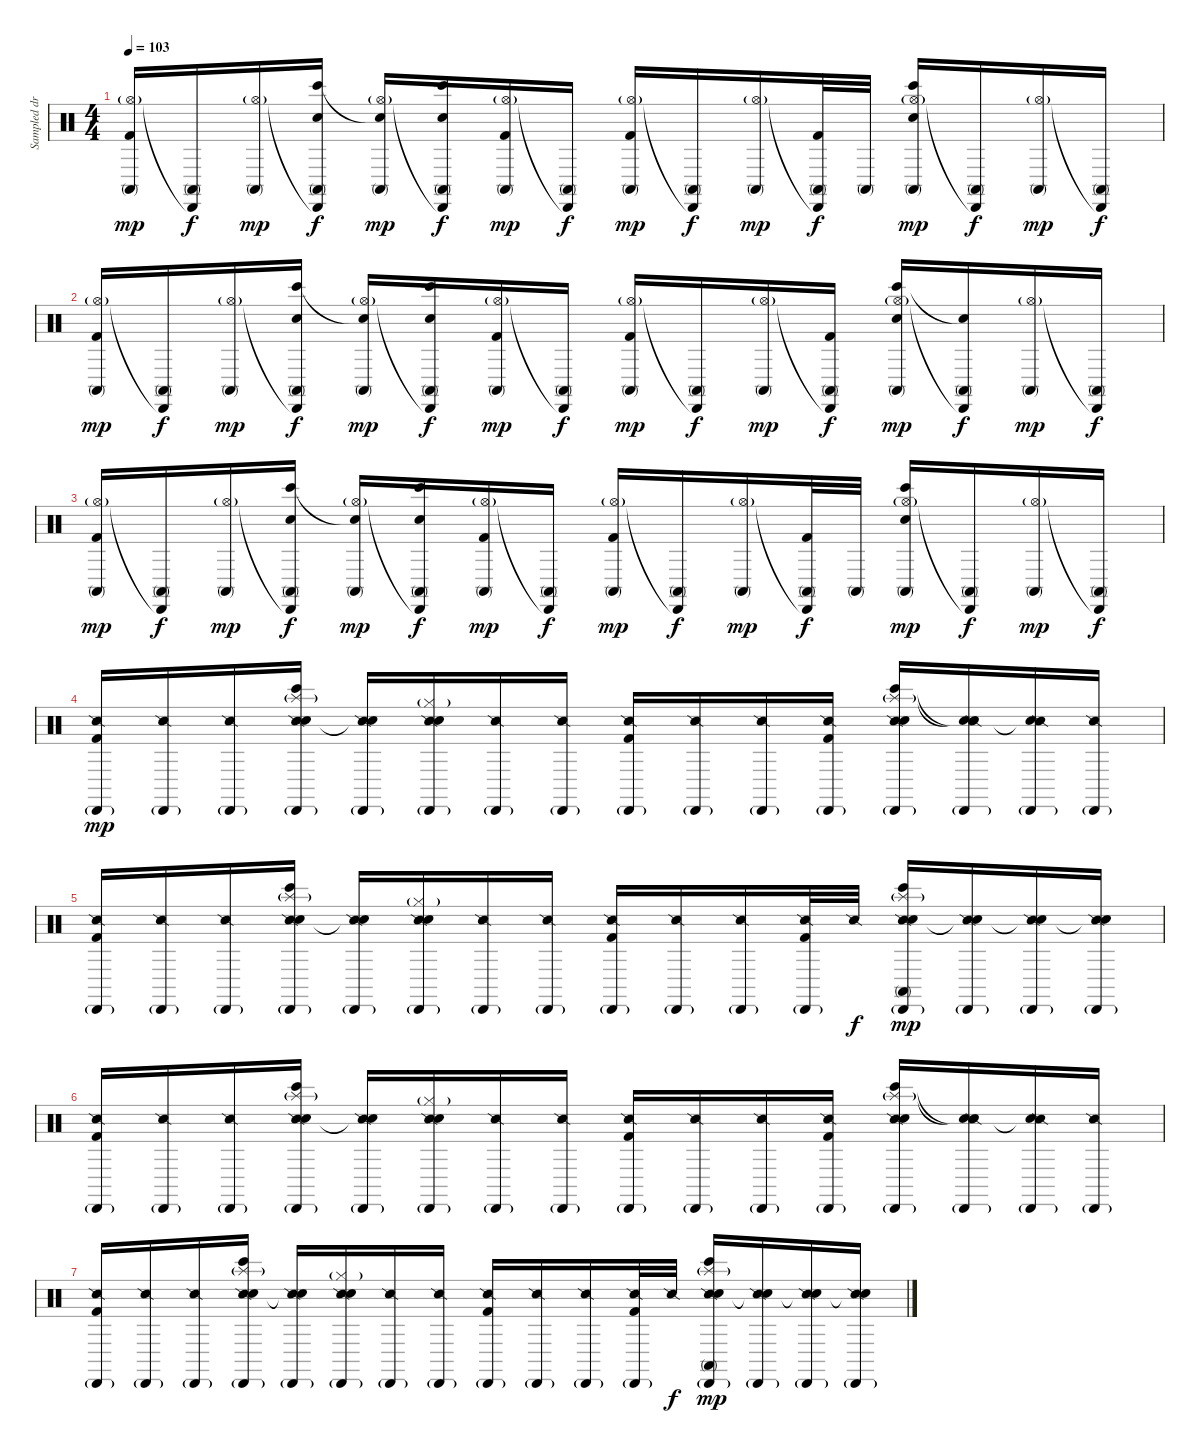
\track ("Sampled drums (Rob with Joe)" "Sampled dr") {instrument percussion}
\staff {score}
\articulation defaults
\ts (4 4)
\tempo 103
\clef neutral
\ks c
("Hi-Hat (open)"{g} "Conga high (mute)" "Kick (hit) 2").16{dy mp} ("Cabasa (hit)"{t} "Conga high (mute)").16{dy f} ("Hi-Hat (open)"{g} "Conga high (mute)").16{dy mp} ("Cabasa (hit)"{t} "Conga high (mute)" "Bongo High (hit)" "Snare (hit) 2").16{dy f} ("Hi-Hat (open)"{g} "Conga high (mute)" "Snare (hit)"{t}).16{dy mp} ("Cabasa (hit)"{t} "Conga high (mute)" "Bongo High (hit)" "Snare (hit) 2").16{dy f} ("Hi-Hat (open)"{g} "Conga high (mute)" "Kick (hit) 2").16{dy mp} ("Cabasa (hit)"{t} "Conga high (mute)").16{dy f} ("Hi-Hat (open)"{g} "Conga high (mute)" "Kick (hit) 2").16{dy mp} ("Cabasa (hit)"{t} "Conga high (mute)").16{dy f} ("Hi-Hat (open)"{g} "Conga high (mute)").16{dy mp} ("Cabasa (hit)"{t} "Conga high (mute)" "Kick (hit) 2").32{dy f} "Conga high (mute)".32 ("Hi-Hat (open)"{g} "Conga high (mute)" "Bongo High (hit)" "Snare (hit) 2").16{dy mp} ("Cabasa (hit)"{t} "Conga high (mute)").16{dy f} ("Hi-Hat (open)"{g} "Conga high (mute)").16{dy mp} ("Cabasa (hit)"{t} "Conga high (mute)").16{dy f} |
("Hi-Hat (open)"{g} "Conga high (mute)" "Kick (hit) 2").16{dy mp} ("Cabasa (hit)"{t} "Conga high (mute)").16{dy f} ("Hi-Hat (open)"{g} "Conga high (mute)").16{dy mp} ("Cabasa (hit)"{t} "Conga high (mute)" "Bongo High (hit)" "Snare (hit) 2").16{dy f} ("Hi-Hat (open)"{g} "Conga high (mute)" "Snare (hit)"{t}).16{dy mp} ("Cabasa (hit)"{t} "Conga high (mute)" "Bongo High (hit)" "Snare (hit) 2").16{dy f} ("Hi-Hat (open)"{g} "Conga high (mute)" "Kick (hit) 2").16{dy mp} ("Cabasa (hit)"{t} "Conga high (mute)").16{dy f} ("Hi-Hat (open)"{g} "Conga high (mute)" "Kick (hit) 2").16{dy mp} ("Cabasa (hit)"{t} "Conga high (mute)").16{dy f} ("Hi-Hat (open)"{g} "Conga high (mute)").16{dy mp} ("Cabasa (hit)"{t} "Conga high (mute)" "Kick (hit) 2").16{dy f} ("Hi-Hat (open)"{g} "Conga high (mute)" "Bongo High (hit)" "Snare (hit) 2").16{dy mp} ("Cabasa (hit)"{t} "Conga high (mute)" "Snare (hit)"{t}).16{dy f} ("Hi-Hat (open)"{g} "Conga high (mute)").16{dy mp} ("Cabasa (hit)"{t} "Conga high (mute)").16{dy f} |
("Hi-Hat (open)"{g} "Conga high (mute)" "Kick (hit) 2").16{dy mp} ("Cabasa (hit)"{t} "Conga high (mute)").16{dy f} ("Hi-Hat (open)"{g} "Conga high (mute)").16{dy mp} ("Cabasa (hit)"{t} "Conga high (mute)" "Bongo High (hit)" "Snare (hit) 2").16{dy f} ("Hi-Hat (open)"{g} "Conga high (mute)" "Snare (hit)"{t}).16{dy mp} ("Cabasa (hit)"{t} "Conga high (mute)" "Bongo High (hit)" "Snare (hit) 2").16{dy f} ("Hi-Hat (open)"{g} "Conga high (mute)" "Kick (hit) 2").16{dy mp} ("Cabasa (hit)"{t} "Conga high (mute)").16{dy f} ("Hi-Hat (open)"{g} "Conga high (mute)" "Kick (hit) 2").16{dy mp} ("Cabasa (hit)"{t} "Conga high (mute)").16{dy f} ("Hi-Hat (open)"{g} "Conga high (mute)").16{dy mp} ("Cabasa (hit)"{t} "Conga high (mute)" "Kick (hit) 2").32{dy f} "Conga high (mute)".32 ("Hi-Hat (open)"{g} "Conga high (mute)" "Bongo High (hit)" "Snare (hit) 2").16{dy mp} ("Cabasa (hit)"{t} "Conga high (mute)").16{dy f} ("Hi-Hat (open)"{g} "Conga high (mute)").16{dy mp} ("Cabasa (hit)"{t} "Conga high (mute)").16{dy f} |
("Cabasa (hit)"{g} "Snare (side stick) 2" "Kick (hit) 2").16{dy mp} ("Cabasa (hit)"{g} "Snare (side stick) 2").16 ("Cabasa (hit)"{g} "Snare (side stick) 2").16 ("Cabasa (hit)"{g} "Splash (hit)"{g} "Snare (side stick) 2" "Bongo High (hit)" "Snare (hit) 2").16 ("Cabasa (hit)"{g} "Snare (side stick) 2" "Snare (hit)"{t}).16 ("Cabasa (hit)"{g} "Hi-Hat (closed)"{g} "Snare (side stick) 2" "Snare (hit) 2").16 ("Cabasa (hit)"{g} "Snare (side stick) 2").16 ("Cabasa (hit)"{g} "Snare (side stick) 2").16 ("Cabasa (hit)"{g} "Snare (side stick) 2" "Kick (hit) 2").16 ("Cabasa (hit)"{g} "Snare (side stick) 2").16 ("Cabasa (hit)"{g} "Snare (side stick) 2").16 ("Cabasa (hit)"{g} "Snare (side stick) 2" "Kick (hit) 2").16 ("Cabasa (hit)"{g} "Splash (hit)"{g} "Snare (side stick) 2" "Bongo High (hit)" "Snare (hit) 2").16 ("Cabasa (hit)"{g} "Snare (hit)"{t} "Snare (side stick) 2" "Snare (hit)"{t}).16 ("Cabasa (hit)"{g} "Snare (hit)"{t} "Snare (side stick) 2").16 ("Cabasa (hit)"{g} "Snare (side stick) 2").16 |
("Cabasa (hit)"{g} "Snare (side stick) 2" "Kick (hit) 2").16 ("Cabasa (hit)"{g} "Snare (side stick) 2").16 ("Cabasa (hit)"{g} "Snare (side stick) 2").16 ("Cabasa (hit)"{g} "Splash (hit)"{g} "Snare (side stick) 2" "Bongo High (hit)" "Snare (hit) 2").16 ("Cabasa (hit)"{g} "Snare (side stick) 2" "Snare (hit)"{t}).16 ("Cabasa (hit)"{g} "Hi-Hat (closed)"{g} "Snare (side stick) 2" "Snare (hit) 2").16 ("Cabasa (hit)"{g} "Snare (side stick) 2").16 ("Cabasa (hit)"{g} "Snare (side stick) 2").16 ("Cabasa (hit)"{g} "Snare (side stick) 2" "Kick (hit) 2").16 ("Cabasa (hit)"{g} "Snare (side stick) 2").16 ("Cabasa (hit)"{g} "Snare (side stick) 2").16 ("Cabasa (hit)"{g} "Snare (side stick) 2" "Kick (hit) 2").32 "Snare (side stick) 2".32{dy f} ("Cabasa (hit)"{g} "Conga high (mute)" "Snare (side stick) 2" "Bongo High (hit)" "Snare (hit) 2" "Splash (hit)"{g}).16{dy mp} ("Cabasa (hit)"{g} "Snare (side stick) 2" "Snare (hit)"{t}).16 ("Cabasa (hit)"{g} "Snare (side stick) 2" "Snare (hit)"{t}).16 ("Cabasa (hit)"{g} "Snare (side stick) 2" "Snare (hit)"{t}).16 |
("Cabasa (hit)"{g} "Snare (side stick) 2" "Kick (hit) 2").16 ("Cabasa (hit)"{g} "Snare (side stick) 2").16 ("Cabasa (hit)"{g} "Snare (side stick) 2").16 ("Cabasa (hit)"{g} "Splash (hit)"{g} "Snare (side stick) 2" "Bongo High (hit)" "Snare (hit) 2").16 ("Cabasa (hit)"{g} "Snare (side stick) 2" "Snare (hit)"{t}).16 ("Cabasa (hit)"{g} "Hi-Hat (closed)"{g} "Snare (side stick) 2" "Snare (hit) 2").16 ("Cabasa (hit)"{g} "Snare (side stick) 2").16 ("Cabasa (hit)"{g} "Snare (side stick) 2").16 ("Cabasa (hit)"{g} "Snare (side stick) 2" "Kick (hit) 2").16 ("Cabasa (hit)"{g} "Snare (side stick) 2").16 ("Cabasa (hit)"{g} "Snare (side stick) 2").16 ("Cabasa (hit)"{g} "Snare (side stick) 2" "Kick (hit) 2").16 ("Cabasa (hit)"{g} "Splash (hit)"{g} "Snare (side stick) 2" "Bongo High (hit)" "Snare (hit) 2").16 ("Cabasa (hit)"{g} "Snare (hit)"{t} "Snare (side stick) 2" "Snare (hit)"{t}).16 ("Cabasa (hit)"{g} "Snare (hit)"{t} "Snare (side stick) 2").16 ("Cabasa (hit)"{g} "Snare (side stick) 2").16 |
("Cabasa (hit)"{g} "Snare (side stick) 2" "Kick (hit) 2").16 ("Cabasa (hit)"{g} "Snare (side stick) 2").16 ("Cabasa (hit)"{g} "Snare (side stick) 2").16 ("Cabasa (hit)"{g} "Splash (hit)"{g} "Snare (side stick) 2" "Bongo High (hit)" "Snare (hit) 2").16 ("Cabasa (hit)"{g} "Snare (side stick) 2" "Snare (hit)"{t}).16 ("Cabasa (hit)"{g} "Hi-Hat (closed)"{g} "Snare (side stick) 2" "Snare (hit) 2").16 ("Cabasa (hit)"{g} "Snare (side stick) 2").16 ("Cabasa (hit)"{g} "Snare (side stick) 2").16 ("Cabasa (hit)"{g} "Snare (side stick) 2" "Kick (hit) 2").16 ("Cabasa (hit)"{g} "Snare (side stick) 2").16 ("Cabasa (hit)"{g} "Snare (side stick) 2").16 ("Cabasa (hit)"{g} "Snare (side stick) 2" "Kick (hit) 2").32 "Snare (side stick) 2".32{dy f} ("Cabasa (hit)"{g} "Conga high (mute)" "Snare (side stick) 2" "Bongo High (hit)" "Snare (hit) 2" "Splash (hit)"{g}).16{dy mp} ("Cabasa (hit)"{g} "Snare (side stick) 2" "Snare (hit)"{t}).16 ("Cabasa (hit)"{g} "Snare (side stick) 2" "Snare (hit)"{t}).16 ("Cabasa (hit)"{g} "Snare (side stick) 2" "Snare (hit)"{t}).16
